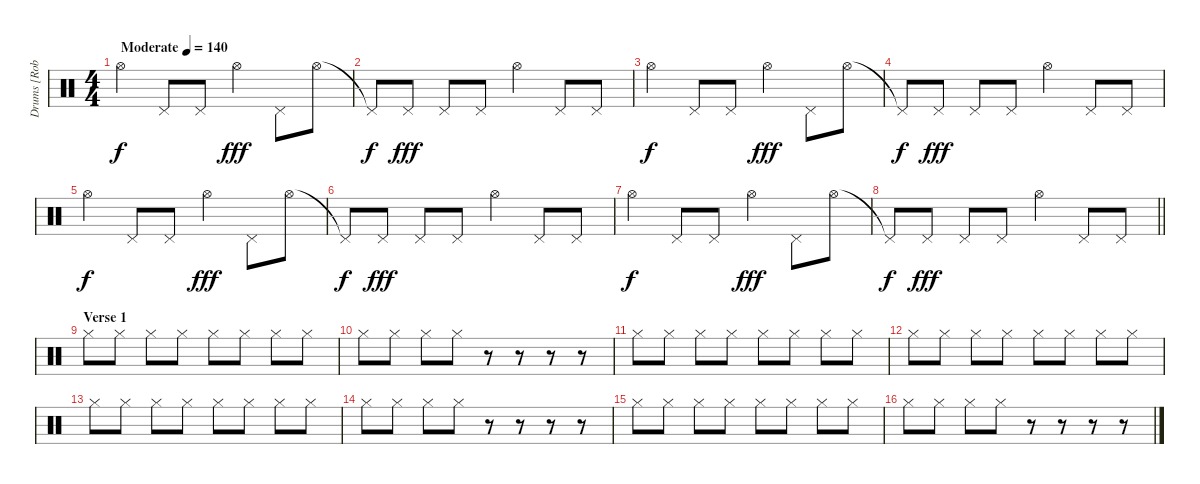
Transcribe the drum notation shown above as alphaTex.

\track ("Drums [Rob Bourdon]" "Drums [Rob") {instrument percussion}
\staff {score}
\articulation defaults
\ts (4 4)
\tempo (140 "Moderate")
\clef neutral
\ks c "Hi-Hat (open)".4{dy f} "Pedal Hi-Hat (hit)".8 "Pedal Hi-Hat (hit)".8 "Hi-Hat (open)".4{dy fff} "Pedal Hi-Hat (hit)".8 "Hi-Hat (open)".8
|
"Pedal Hi-Hat (hit)"{t}.8{dy f} "Pedal Hi-Hat (hit)".8{dy fff} "Pedal Hi-Hat (hit)".8 "Pedal Hi-Hat (hit)".8 "Hi-Hat (open)".4 "Pedal Hi-Hat (hit)".8 "Pedal Hi-Hat (hit)".8 |
"Hi-Hat (open)".4{dy f} "Pedal Hi-Hat (hit)".8 "Pedal Hi-Hat (hit)".8 "Hi-Hat (open)".4{dy fff} "Pedal Hi-Hat (hit)".8 "Hi-Hat (open)".8 |
"Pedal Hi-Hat (hit)"{t}.8{dy f} "Pedal Hi-Hat (hit)".8{dy fff} "Pedal Hi-Hat (hit)".8 "Pedal Hi-Hat (hit)".8 "Hi-Hat (open)".4 "Pedal Hi-Hat (hit)".8 "Pedal Hi-Hat (hit)".8 |
"Hi-Hat (open)".4{dy f} "Pedal Hi-Hat (hit)".8 "Pedal Hi-Hat (hit)".8 "Hi-Hat (open)".4{dy fff} "Pedal Hi-Hat (hit)".8 "Hi-Hat (open)".8 |
"Pedal Hi-Hat (hit)"{t}.8{dy f} "Pedal Hi-Hat (hit)".8{dy fff} "Pedal Hi-Hat (hit)".8 "Pedal Hi-Hat (hit)".8 "Hi-Hat (open)".4 "Pedal Hi-Hat (hit)".8 "Pedal Hi-Hat (hit)".8 |
"Hi-Hat (open)".4{dy f} "Pedal Hi-Hat (hit)".8 "Pedal Hi-Hat (hit)".8 "Hi-Hat (open)".4{dy fff} "Pedal Hi-Hat (hit)".8 "Hi-Hat (open)".8 |
\barLineRight lightlight "Pedal Hi-Hat (hit)"{t}.8{dy f} "Pedal Hi-Hat (hit)".8{dy fff} "Pedal Hi-Hat (hit)".8 "Pedal Hi-Hat (hit)".8 "Hi-Hat (open)".4 "Pedal Hi-Hat (hit)".8 "Pedal Hi-Hat (hit)".8
|
\section ("" "Verse 1")
"Hi-Hat (closed)".8 "Hi-Hat (closed)".8 "Hi-Hat (closed)".8 "Hi-Hat (closed)".8 "Hi-Hat (closed)".8 "Hi-Hat (closed)".8 "Hi-Hat (closed)".8 "Hi-Hat (closed)".8 |
"Hi-Hat (closed)".8 "Hi-Hat (closed)".8 "Hi-Hat (closed)".8 "Hi-Hat (closed)".8 r.8 r.8 r.8 r.8 |
"Hi-Hat (closed)".8 "Hi-Hat (closed)".8 "Hi-Hat (closed)".8 "Hi-Hat (closed)".8 "Hi-Hat (closed)".8 "Hi-Hat (closed)".8 "Hi-Hat (closed)".8 "Hi-Hat (closed)".8 |
"Hi-Hat (closed)".8 "Hi-Hat (closed)".8 "Hi-Hat (closed)".8 "Hi-Hat (closed)".8 "Hi-Hat (closed)".8 "Hi-Hat (closed)".8 "Hi-Hat (closed)".8 "Hi-Hat (closed)".8 |
"Hi-Hat (closed)".8 "Hi-Hat (closed)".8 "Hi-Hat (closed)".8 "Hi-Hat (closed)".8 "Hi-Hat (closed)".8 "Hi-Hat (closed)".8 "Hi-Hat (closed)".8 "Hi-Hat (closed)".8 |
"Hi-Hat (closed)".8 "Hi-Hat (closed)".8 "Hi-Hat (closed)".8 "Hi-Hat (closed)".8 r.8 r.8 r.8 r.8 |
"Hi-Hat (closed)".8 "Hi-Hat (closed)".8 "Hi-Hat (closed)".8 "Hi-Hat (closed)".8 "Hi-Hat (closed)".8 "Hi-Hat (closed)".8 "Hi-Hat (closed)".8 "Hi-Hat (closed)".8 |
"Hi-Hat (closed)".8 "Hi-Hat (closed)".8 "Hi-Hat (closed)".8 "Hi-Hat (closed)".8 r.8 r.8 r.8 r.8
